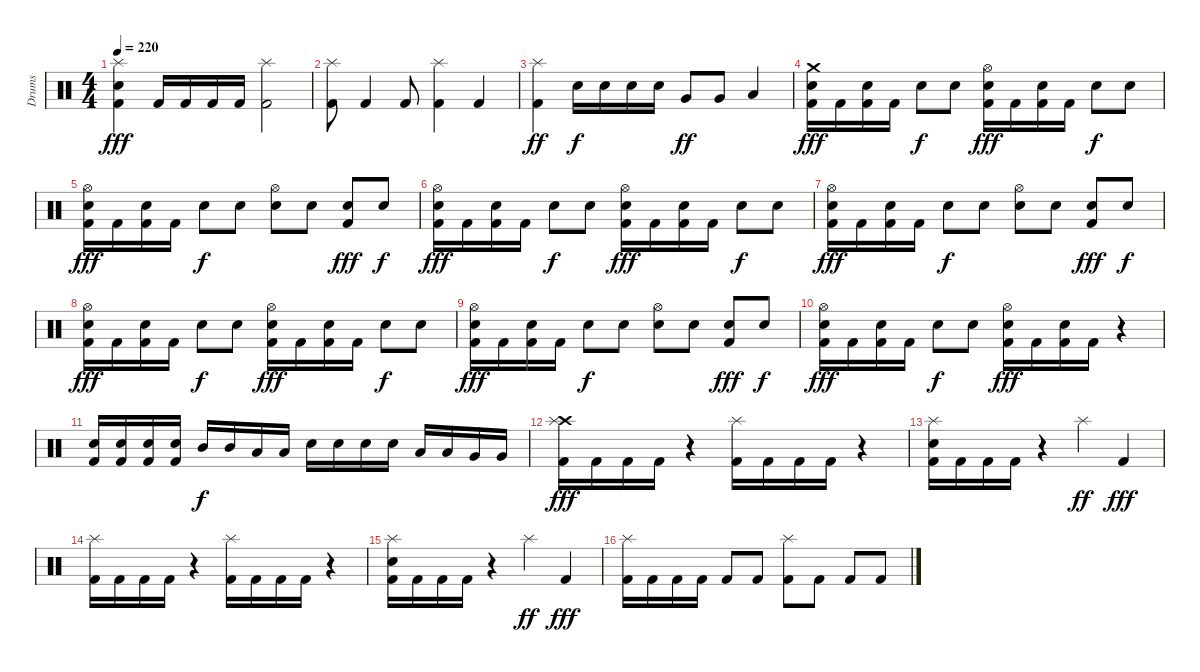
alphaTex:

\track ("Drums" "Drums") {instrument percussion}
\staff {score}
\articulation defaults
\ts (4 4)
\tempo 220
\clef neutral
\ks c
("Splash (hit)" "Snare (hit) 2" "Kick (hit) 2").4{dy fff} "Kick (hit) 2".16 "Kick (hit) 2".16 "Kick (hit) 2".16 "Kick (hit) 2".16 ("Splash (hit)" "Kick (hit) 2").2 |
("Splash (hit)" "Kick (hit) 2").8 "Kick (hit) 2".4 "Kick (hit) 2".8 ("Splash (hit)" "Kick (hit) 2").4 "Kick (hit) 2".4 |
("Splash (hit)" "Kick (hit) 2").4{dy ff} "Snare (hit) 2".16{dy f} "Snare (hit) 2".16 "Snare (hit) 2".16 "Snare (hit) 2".16 "Very Low Tom (hit)".8{dy ff} "Very Low Tom (hit)".8 "Low Floor Tom (hit)".4 |
("Crash medium (hit)" "Snare (hit) 2" "Kick (hit) 2").16{dy fff} "Kick (hit) 2".16 ("Snare (hit) 2" "Kick (hit) 2").16 "Kick (hit) 2".16 "Snare (hit) 2".8{dy f} "Snare (hit) 2".8 ("Hi-Hat (open)" "Snare (hit) 2" "Kick (hit) 2").16{dy fff} "Kick (hit) 2".16 ("Snare (hit) 2" "Kick (hit) 2").16 "Kick (hit) 2".16 "Snare (hit) 2".8{dy f} "Snare (hit) 2".8 |
("Hi-Hat (open)" "Snare (hit) 2" "Kick (hit) 2").16{dy fff} "Kick (hit) 2".16 ("Snare (hit) 2" "Kick (hit) 2").16 "Kick (hit) 2".16 "Snare (hit) 2".8{dy f} "Snare (hit) 2".8 ("Hi-Hat (open)" "Snare (hit) 2").8 "Snare (hit) 2".8 ("Snare (hit) 2" "Kick (hit) 2").8{dy fff} "Snare (hit) 2".8{dy f} |
("Hi-Hat (open)" "Snare (hit) 2" "Kick (hit) 2").16{dy fff} "Kick (hit) 2".16 ("Snare (hit) 2" "Kick (hit) 2").16 "Kick (hit) 2".16 "Snare (hit) 2".8{dy f} "Snare (hit) 2".8 ("Hi-Hat (open)" "Snare (hit) 2" "Kick (hit) 2").16{dy fff} "Kick (hit) 2".16 ("Snare (hit) 2" "Kick (hit) 2").16 "Kick (hit) 2".16 "Snare (hit) 2".8{dy f} "Snare (hit) 2".8 |
("Hi-Hat (open)" "Snare (hit) 2" "Kick (hit) 2").16{dy fff} "Kick (hit) 2".16 ("Snare (hit) 2" "Kick (hit) 2").16 "Kick (hit) 2".16 "Snare (hit) 2".8{dy f} "Snare (hit) 2".8 ("Hi-Hat (open)" "Snare (hit) 2").8 "Snare (hit) 2".8 ("Snare (hit) 2" "Kick (hit) 2").8{dy fff} "Snare (hit) 2".8{dy f} |
("Hi-Hat (open)" "Snare (hit) 2" "Kick (hit) 2").16{dy fff} "Kick (hit) 2".16 ("Snare (hit) 2" "Kick (hit) 2").16 "Kick (hit) 2".16 "Snare (hit) 2".8{dy f} "Snare (hit) 2".8 ("Hi-Hat (open)" "Snare (hit) 2" "Kick (hit) 2").16{dy fff} "Kick (hit) 2".16 ("Snare (hit) 2" "Kick (hit) 2").16 "Kick (hit) 2".16 "Snare (hit) 2".8{dy f} "Snare (hit) 2".8 |
("Hi-Hat (open)" "Snare (hit) 2" "Kick (hit) 2").16{dy fff} "Kick (hit) 2".16 ("Snare (hit) 2" "Kick (hit) 2").16 "Kick (hit) 2".16 "Snare (hit) 2".8{dy f} "Snare (hit) 2".8 ("Hi-Hat (open)" "Snare (hit) 2").8 "Snare (hit) 2".8 ("Snare (hit) 2" "Kick (hit) 2").8{dy fff} "Snare (hit) 2".8{dy f} |
("Hi-Hat (open)" "Snare (hit) 2" "Kick (hit) 2").16{dy fff} "Kick (hit) 2".16 ("Snare (hit) 2" "Kick (hit) 2").16 "Kick (hit) 2".16 "Snare (hit) 2".8{dy f} "Snare (hit) 2".8 ("Hi-Hat (open)" "Snare (hit) 2" "Kick (hit) 2").16{dy fff} "Kick (hit) 2".16 ("Snare (hit) 2" "Kick (hit) 2").16 "Kick (hit) 2".16 r.4 |
("Snare (hit) 2" "Kick (hit) 2").16 ("Snare (hit) 2" "Kick (hit) 2").16 ("Snare (hit) 2" "Kick (hit) 2").16 ("Snare (hit) 2" "Kick (hit) 2").16 "Mid Tom (hit)".16{dy f} "Mid Tom (hit)".16 "Low Tom (hit)".16 "Low Tom (hit)".16 "Snare (hit) 2".16 "Snare (hit) 2".16 "Snare (hit) 2".16 "Snare (hit) 2".16 "Low Tom (hit)".16 "Low Tom (hit)".16 "Very Low Tom (hit)".16 "Very Low Tom (hit)".16 |
("Crash high (hit)" "Splash (hit)" "Kick (hit) 2").16{dy fff} "Kick (hit) 2".16 "Kick (hit) 2".16 "Kick (hit) 2".16 r.4 ("Splash (hit)" "Kick (hit) 2").16 "Kick (hit) 2".16 "Kick (hit) 2".16 "Kick (hit) 2".16 r.4 |
("Splash (hit)" "Snare (hit) 2" "Kick (hit) 2").16 "Kick (hit) 2".16 "Kick (hit) 2".16 "Kick (hit) 2".16 r.4 "Splash (hit)".4{dy ff} "Kick (hit) 2".4{dy fff} |
("Splash (hit)" "Kick (hit) 2").16 "Kick (hit) 2".16 "Kick (hit) 2".16 "Kick (hit) 2".16 r.4 ("Splash (hit)" "Kick (hit) 2").16 "Kick (hit) 2".16 "Kick (hit) 2".16 "Kick (hit) 2".16 r.4 |
("Splash (hit)" "Snare (hit) 2" "Kick (hit) 2").16 "Kick (hit) 2".16 "Kick (hit) 2".16 "Kick (hit) 2".16 r.4 "Splash (hit)".4{dy ff} "Kick (hit) 2".4{dy fff} |
("Splash (hit)" "Kick (hit) 2").16 "Kick (hit) 2".16 "Kick (hit) 2".16 "Kick (hit) 2".16 "Kick (hit) 2".8 "Kick (hit) 2".8 ("Splash (hit)" "Kick (hit) 2").8 "Kick (hit) 2".8 "Kick (hit) 2".8 "Kick (hit) 2".8
